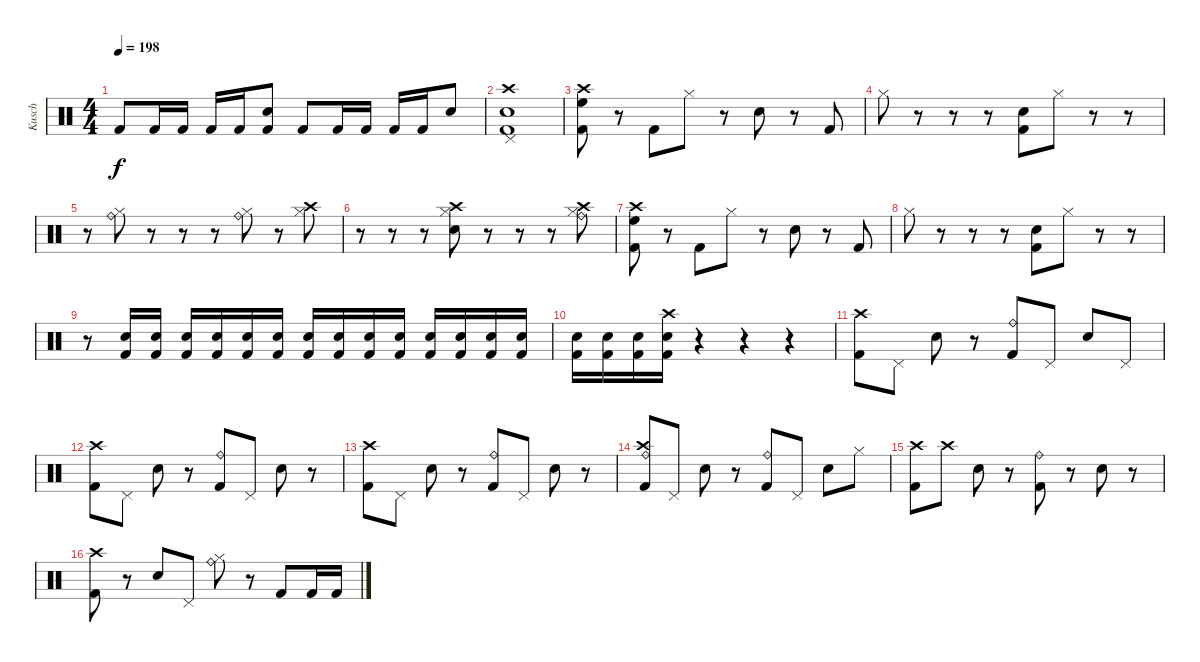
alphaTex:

\track ("Kusch" "Kusch") {instrument percussion}
\staff {score}
\articulation defaults
\ts (4 4)
\tempo 198
\clef neutral
\ks c "Kick (hit) 2".8{dy f} "Kick (hit) 2".16 "Kick (hit) 2".16 "Kick (hit) 2".16 "Kick (hit) 2".16
("Snare (hit) 2" "Kick (hit) 2").8 "Kick (hit) 2".8 "Kick (hit) 2".16 "Kick (hit) 2".16 "Kick (hit) 2".16 "Kick (hit) 2".16 "Snare (hit) 2".8 |
("Snare (hit) 2" "Crash high (hit)" "Pedal Hi-Hat (hit)" "Kick (hit) 2").1 |
("Crash high (hit)" "High Floor Tom (hit)" "Kick (hit) 2").8 r.8 "Kick (hit) 2".8 "Hi-Hat (closed)".8 r.8 "Snare (hit) 2".8 r.8 "Kick (hit) 2".8 |
"Hi-Hat (closed)".8 r.8 r.8 r.8 ("Snare (hit) 2" "Kick (hit) 2").8 "Hi-Hat (closed)".8 r.8 r.8 |
r.8 ("Ride (bell)" "Hi-Hat (closed)").8 r.8 r.8 r.8 ("Ride (bell)" "Hi-Hat (closed)").8 r.8 ("Crash high (hit)" "Hi-Hat (closed)").8 |
r.8 r.8 r.8 ("Crash high (hit)" "Snare (hit) 2" "Hi-Hat (closed)").8 r.8 r.8 r.8 ("Crash high (hit)" "Ride (bell)" "Hi-Hat (closed)").8 |
("Crash high (hit)" "High Floor Tom (hit)" "Kick (hit) 2").8 r.8 "Kick (hit) 2".8 "Hi-Hat (closed)".8 r.8 "Snare (hit) 2".8 r.8 "Kick (hit) 2".8 |
"Hi-Hat (closed)".8 r.8 r.8 r.8 ("Snare (hit) 2" "Kick (hit) 2").8 "Hi-Hat (closed)".8 r.8 r.8 |
r.8 ("Snare (hit) 2" "Kick (hit) 2").16 ("Snare (hit) 2" "Kick (hit) 2").16 ("Snare (hit) 2" "Kick (hit) 2").16 ("Snare (hit) 2" "Kick (hit) 2").16 ("Snare (hit) 2" "Kick (hit) 2").16 ("Snare (hit) 2" "Kick (hit) 2").16 ("Snare (hit) 2" "Kick (hit) 2").16 ("Snare (hit) 2" "Kick (hit) 2").16 ("Snare (hit) 2" "Kick (hit) 2").16 ("Snare (hit) 2" "Kick (hit) 2").16 ("Snare (hit) 2" "Kick (hit) 2").16 ("Snare (hit) 2" "Kick (hit) 2").16 ("Snare (hit) 2" "Kick (hit) 2").16 ("Snare (hit) 2" "Kick (hit) 2").16 |
("Snare (hit) 2" "Kick (hit) 2").16 ("Snare (hit) 2" "Kick (hit) 2").16 ("Snare (hit) 2" "Kick (hit) 2").16 ("Crash high (hit)" "Snare (hit) 2" "Kick (hit) 2").16 r.4 r.4 r.4 |
("Crash high (hit)" "Kick (hit) 2").8 "Pedal Hi-Hat (hit)".8 "Snare (hit) 2".8 r.8 ("Ride (bell)" "Kick (hit) 2").8 "Pedal Hi-Hat (hit)".8 "Snare (hit) 2".8 "Pedal Hi-Hat (hit)".8 |
("Crash high (hit)" "Kick (hit) 2").8 "Pedal Hi-Hat (hit)".8 "Snare (hit) 2".8 r.8 ("Ride (bell)" "Kick (hit) 2").8 "Pedal Hi-Hat (hit)".8 "Snare (hit) 2".8 r.8 |
("Crash high (hit)" "Kick (hit) 2").8 "Pedal Hi-Hat (hit)".8 "Snare (hit) 2".8 r.8 ("Ride (bell)" "Kick (hit) 2").8 "Pedal Hi-Hat (hit)".8 "Snare (hit) 2".8 r.8 |
("Ride (bell)" "Crash high (hit)" "Kick (hit) 2").8 "Pedal Hi-Hat (hit)".8 "Snare (hit) 2".8 r.8 ("Ride (bell)" "Kick (hit) 2").8 "Pedal Hi-Hat (hit)".8 "Snare (hit) 2".8 "Hi-Hat (closed)".8 |
("Crash high (hit)" "Kick (hit) 2").8 "Crash high (hit)".8 "Snare (hit) 2".8 r.8 ("Ride (bell)" "Kick (hit) 2").8 r.8 "Snare (hit) 2".8 r.8 |
("Crash high (hit)" "Kick (hit) 2").8 r.8 "Snare (hit) 2".8 "Pedal Hi-Hat (hit)".8 ("Ride (bell)" "Hi-Hat (closed)").8 r.8 "Kick (hit) 2".8 "Kick (hit) 2".16 "Kick (hit) 2".16
